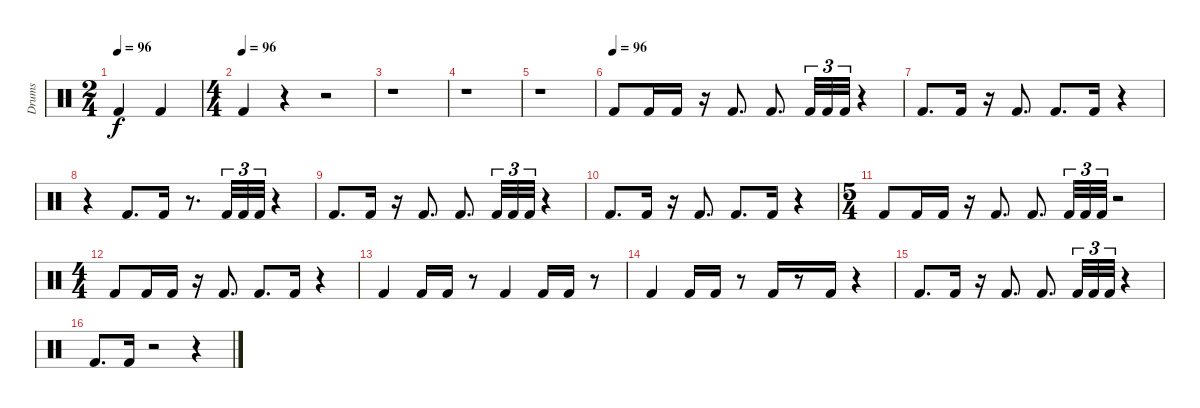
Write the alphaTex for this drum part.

\track ("Drums" "Drums") {instrument percussion}
\staff {score}
\articulation defaults
\ts (2 4)
\tempo 96
\clef neutral
\ks c "Kick (hit) 2".4{dy f} "Kick (hit) 2".4
|
\ts (4 4)
\tempo (96)
"Kick (hit) 2".4 r.4 r.2 |
r.1 |
r.1 |
r.1 |
\tempo (96)
"Kick (hit) 2".8 "Kick (hit) 2".16 "Kick (hit) 2".16 r.16 "Kick (hit) 2".8{d} "Kick (hit) 2".8{d} "Kick (hit) 2".32{tu (3 2)} "Kick (hit) 2".32{tu (3 2)} "Kick (hit) 2".32{tu (3 2)} r.4 |
"Kick (hit) 2".8{d} "Kick (hit) 2".16 r.16 "Kick (hit) 2".8{d} "Kick (hit) 2".8{d} "Kick (hit) 2".16 r.4 |
r.4 "Kick (hit) 2".8{d} "Kick (hit) 2".16 r.8{d} "Kick (hit) 2".32{tu (3 2)} "Kick (hit) 2".32{tu (3 2)} "Kick (hit) 2".32{tu (3 2)} r.4 |
"Kick (hit) 2".8{d} "Kick (hit) 2".16 r.16 "Kick (hit) 2".8{d} "Kick (hit) 2".8{d} "Kick (hit) 2".32{tu (3 2)} "Kick (hit) 2".32{tu (3 2)} "Kick (hit) 2".32{tu (3 2)} r.4 |
"Kick (hit) 2".8{d} "Kick (hit) 2".16 r.16 "Kick (hit) 2".8{d} "Kick (hit) 2".8{d} "Kick (hit) 2".16 r.4 |
\ts (5 4)
"Kick (hit) 2".8 "Kick (hit) 2".16 "Kick (hit) 2".16 r.16 "Kick (hit) 2".8{d} "Kick (hit) 2".8{d} "Kick (hit) 2".32{tu (3 2)} "Kick (hit) 2".32{tu (3 2)} "Kick (hit) 2".32{tu (3 2)} r.2 |
\ts (4 4)
"Kick (hit) 2".8 "Kick (hit) 2".16 "Kick (hit) 2".16 r.16 "Kick (hit) 2".8{d} "Kick (hit) 2".8{d} "Kick (hit) 2".16 r.4 |
"Kick (hit) 2".4 "Kick (hit) 2".16 "Kick (hit) 2".16 r.8 "Kick (hit) 2".4 "Kick (hit) 2".16 "Kick (hit) 2".16 r.8 |
"Kick (hit) 2".4 "Kick (hit) 2".16 "Kick (hit) 2".16 r.8 "Kick (hit) 2".16 r.8 "Kick (hit) 2".16 r.4 |
"Kick (hit) 2".8{d} "Kick (hit) 2".16 r.16 "Kick (hit) 2".8{d} "Kick (hit) 2".8{d} "Kick (hit) 2".32{tu (3 2)} "Kick (hit) 2".32{tu (3 2)} "Kick (hit) 2".32{tu (3 2)} r.4 |
"Kick (hit) 2".8{d} "Kick (hit) 2".16 r.2 r.4
